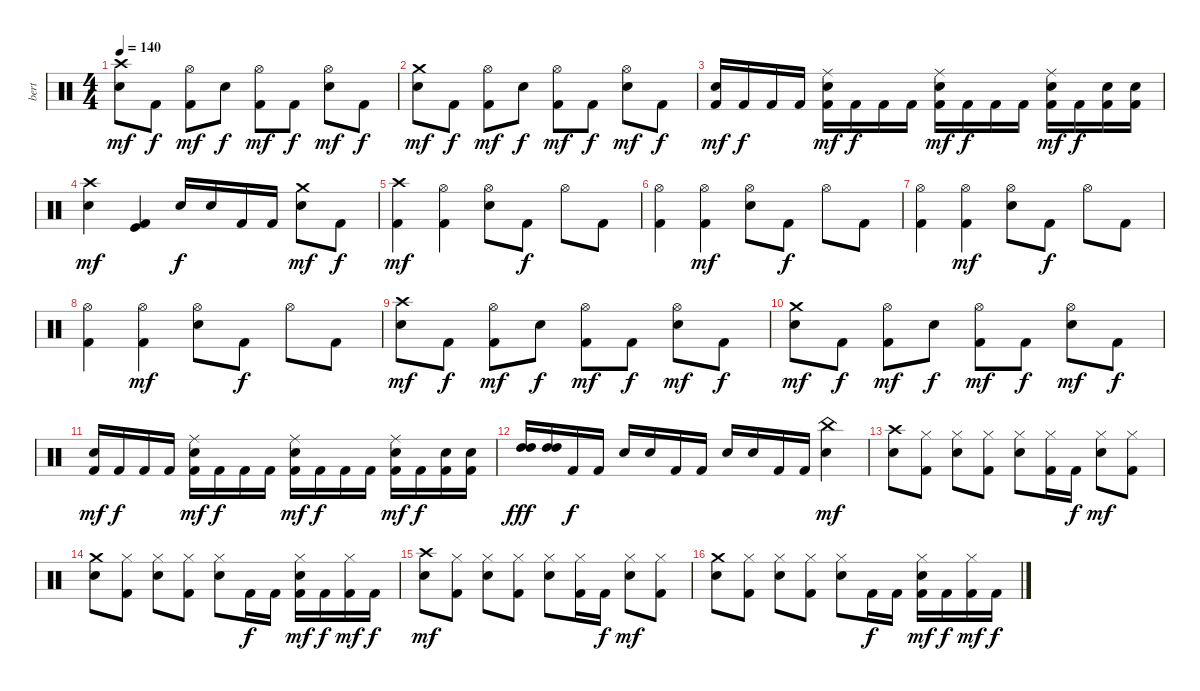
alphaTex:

\track ("bert" "bert") {instrument percussion}
\staff {score}
\articulation defaults
\ts (4 4)
\tempo 140
\clef neutral
\ks c
("Crash high (hit)" "Snare (hit) 2").8{dy mf} "Kick (hit) 2".8{dy f} ("Hi-Hat (open)" "Kick (hit) 2").8{dy mf} "Snare (hit) 2".8{dy f} ("Hi-Hat (open)" "Kick (hit) 2").8{dy mf} "Kick (hit) 2".8{dy f} ("Hi-Hat (open)" "Snare (hit) 2").8{dy mf} "Kick (hit) 2".8{dy f} |
("Crash medium (hit)" "Snare (hit) 2").8{dy mf} "Kick (hit) 2".8{dy f} ("Hi-Hat (open)" "Kick (hit) 2").8{dy mf} "Snare (hit) 2".8{dy f} ("Hi-Hat (open)" "Kick (hit) 2").8{dy mf} "Kick (hit) 2".8{dy f} ("Hi-Hat (open)" "Snare (hit) 2").8{dy mf} "Kick (hit) 2".8{dy f} |
("Snare (hit) 2" "Kick (hit) 2").16{dy mf} "Kick (hit) 2".16{dy f} "Kick (hit) 2".16 "Kick (hit) 2".16 ("Ride (middle)" "Snare (hit) 2" "Kick (hit) 2").16{dy mf} "Kick (hit) 2".16{dy f} "Kick (hit) 2".16 "Kick (hit) 2".16 ("Ride (middle)" "Snare (hit) 2" "Kick (hit) 2").16{dy mf} "Kick (hit) 2".16{dy f} "Kick (hit) 2".16 "Kick (hit) 2".16 ("Ride (middle)" "Snare (hit) 2" "Kick (hit) 2").16{dy mf} "Kick (hit) 2".16{dy f} ("Snare (hit) 2" "Kick (hit) 2").16 ("Snare (hit) 2" "Kick (hit) 2").16 |
("Crash high (hit)" "Snare (hit) 2").4{dy mf} ("Kick (hit)" "Kick (hit) 2").4 "Snare (hit) 2".16{dy f} "Snare (hit) 2".16 "Kick (hit) 2".16 "Kick (hit) 2".16 ("Crash medium (hit)" "Snare (hit) 2").8{dy mf} "Kick (hit) 2".8{dy f} |
("Crash high (hit)" "Kick (hit) 2").4{dy mf} ("Hi-Hat (open)" "Kick (hit) 2").4 ("Hi-Hat (open)" "Snare (hit) 2").8 "Kick (hit) 2".8{dy f} "Hi-Hat (open)".8 "Kick (hit) 2".8 |
("Hi-Hat (open)" "Kick (hit) 2").4 ("Hi-Hat (open)" "Kick (hit) 2").4{dy mf} ("Hi-Hat (open)" "Snare (hit) 2").8 "Kick (hit) 2".8{dy f} "Hi-Hat (open)".8 "Kick (hit) 2".8 |
("Hi-Hat (open)" "Kick (hit) 2").4 ("Hi-Hat (open)" "Kick (hit) 2").4{dy mf} ("Hi-Hat (open)" "Snare (hit) 2").8 "Kick (hit) 2".8{dy f} "Hi-Hat (open)".8 "Kick (hit) 2".8 |
("Hi-Hat (open)" "Kick (hit) 2").4 ("Hi-Hat (open)" "Kick (hit) 2").4{dy mf} ("Hi-Hat (open)" "Snare (hit) 2").8 "Kick (hit) 2".8{dy f} "Hi-Hat (open)".8 "Kick (hit) 2".8 |
("Crash high (hit)" "Snare (hit) 2").8{dy mf} "Kick (hit) 2".8{dy f} ("Hi-Hat (open)" "Kick (hit) 2").8{dy mf} "Snare (hit) 2".8{dy f} ("Hi-Hat (open)" "Kick (hit) 2").8{dy mf} "Kick (hit) 2".8{dy f} ("Hi-Hat (open)" "Snare (hit) 2").8{dy mf} "Kick (hit) 2".8{dy f} |
("Crash medium (hit)" "Snare (hit) 2").8{dy mf} "Kick (hit) 2".8{dy f} ("Hi-Hat (open)" "Kick (hit) 2").8{dy mf} "Snare (hit) 2".8{dy f} ("Hi-Hat (open)" "Kick (hit) 2").8{dy mf} "Kick (hit) 2".8{dy f} ("Hi-Hat (open)" "Snare (hit) 2").8{dy mf} "Kick (hit) 2".8{dy f} |
("Snare (hit) 2" "Kick (hit) 2").16{dy mf} "Kick (hit) 2".16{dy f} "Kick (hit) 2".16 "Kick (hit) 2".16 ("Ride (middle)" "Snare (hit) 2" "Kick (hit) 2").16{dy mf} "Kick (hit) 2".16{dy f} "Kick (hit) 2".16 "Kick (hit) 2".16 ("Ride (middle)" "Snare (hit) 2" "Kick (hit) 2").16{dy mf} "Kick (hit) 2".16{dy f} "Kick (hit) 2".16 "Kick (hit) 2".16 ("Ride (middle)" "Snare (hit) 2" "Kick (hit) 2").16{dy mf} "Kick (hit) 2".16{dy f} ("Snare (hit) 2" "Kick (hit) 2").16 ("Snare (hit) 2" "Kick (hit) 2").16 |
("High Tom (hit)" "High Tom (hit)").16{dy fff} ("High Tom (hit)" "High Tom (hit)").16 "Kick (hit) 2".16{dy f} "Kick (hit) 2".16 "Snare (hit) 2".16 "Snare (hit) 2".16 "Kick (hit) 2".16 "Kick (hit) 2".16 "Snare (hit) 2".16 "Snare (hit) 2".16 "Kick (hit) 2".16 "Kick (hit) 2".16 ("China (hit)" "Snare (hit) 2").4{dy mf} |
("Crash high (hit)" "Snare (hit) 2").8 ("Hi-Hat (closed)" "Kick (hit) 2").8 ("Hi-Hat (closed)" "Snare (hit) 2").8 ("Hi-Hat (closed)" "Kick (hit) 2").8 ("Hi-Hat (closed)" "Snare (hit) 2").8 ("Hi-Hat (closed)" "Kick (hit) 2").16 "Kick (hit) 2".16{dy f} ("Hi-Hat (closed)" "Snare (hit) 2").8{dy mf} ("Hi-Hat (closed)" "Kick (hit) 2").8 |
("Crash medium (hit)" "Snare (hit) 2").8 ("Hi-Hat (closed)" "Kick (hit) 2").8 ("Hi-Hat (closed)" "Snare (hit) 2").8 ("Hi-Hat (closed)" "Kick (hit) 2").8 ("Hi-Hat (closed)" "Snare (hit) 2").8 "Kick (hit) 2".16{dy f} "Kick (hit) 2".16 ("Hi-Hat (closed)" "Snare (hit) 2" "Kick (hit) 2").16{dy mf} "Kick (hit) 2".16{dy f} ("Hi-Hat (closed)" "Kick (hit) 2").16{dy mf} "Kick (hit) 2".16{dy f} |
("Crash high (hit)" "Snare (hit) 2").8{dy mf} ("Hi-Hat (closed)" "Kick (hit) 2").8 ("Hi-Hat (closed)" "Snare (hit) 2").8 ("Hi-Hat (closed)" "Kick (hit) 2").8 ("Hi-Hat (closed)" "Snare (hit) 2").8 ("Hi-Hat (closed)" "Kick (hit) 2").16 "Kick (hit) 2".16{dy f} ("Hi-Hat (closed)" "Snare (hit) 2").8{dy mf} ("Hi-Hat (closed)" "Kick (hit) 2").8 |
("Crash medium (hit)" "Snare (hit) 2").8 ("Hi-Hat (closed)" "Kick (hit) 2").8 ("Hi-Hat (closed)" "Snare (hit) 2").8 ("Hi-Hat (closed)" "Kick (hit) 2").8 ("Hi-Hat (closed)" "Snare (hit) 2").8 "Kick (hit) 2".16{dy f} "Kick (hit) 2".16 ("Hi-Hat (closed)" "Snare (hit) 2" "Kick (hit) 2").16{dy mf} "Kick (hit) 2".16{dy f} ("Hi-Hat (closed)" "Kick (hit) 2").16{dy mf} "Kick (hit) 2".16{dy f}
